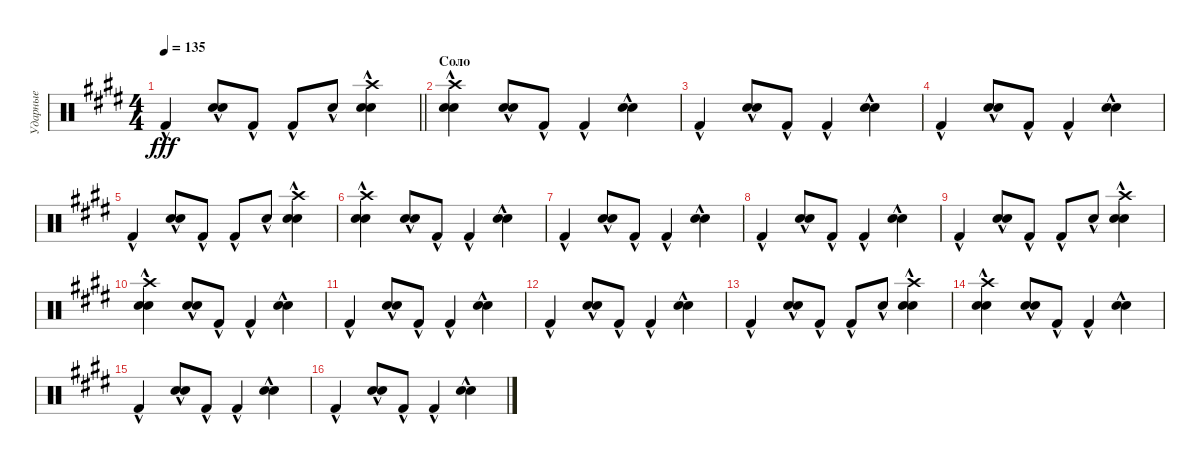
\track ("Ударные" "Ударные") {instrument percussion}
\staff {score}
\articulation defaults
\ts (4 4)
\tempo 135
\clef neutral
\barLineRight lightlight
\ks c#minor "Kick (hit) 2"{hac}.4{dy fff}
("Snare (hit) 2"{hac} "Electric Snare (hit)"{hac}).8 "Kick (hit) 2"{hac}.8 "Kick (hit) 2"{hac}.8 "Electric Snare (hit)"{hac}.8 ("Crash high (hit)"{hac} "Snare (hit) 2"{hac} "Electric Snare (hit)"{hac}).4 |
\section ("" "Соло")
("Crash high (hit)"{hac} "Snare (hit) 2"{hac} "Electric Snare (hit)"{hac}).4 ("Snare (hit) 2"{hac} "Electric Snare (hit)"{hac}).8 "Kick (hit) 2"{hac}.8 "Kick (hit) 2"{hac}.4 ("Snare (hit) 2"{hac} "Electric Snare (hit)"{hac}).4 |
"Kick (hit) 2"{hac}.4 ("Snare (hit) 2"{hac} "Electric Snare (hit)"{hac}).8 "Kick (hit) 2"{hac}.8 "Kick (hit) 2"{hac}.4 ("Snare (hit) 2"{hac} "Electric Snare (hit)"{hac}).4 |
"Kick (hit) 2"{hac}.4 ("Snare (hit) 2"{hac} "Electric Snare (hit)"{hac}).8 "Kick (hit) 2"{hac}.8 "Kick (hit) 2"{hac}.4 ("Snare (hit) 2"{hac} "Electric Snare (hit)"{hac}).4 |
"Kick (hit) 2"{hac}.4 ("Snare (hit) 2"{hac} "Electric Snare (hit)"{hac}).8 "Kick (hit) 2"{hac}.8 "Kick (hit) 2"{hac}.8 "Electric Snare (hit)"{hac}.8 ("Crash high (hit)"{hac} "Snare (hit) 2"{hac} "Electric Snare (hit)"{hac}).4 |
("Crash high (hit)"{hac} "Snare (hit) 2"{hac} "Electric Snare (hit)"{hac}).4 ("Snare (hit) 2"{hac} "Electric Snare (hit)"{hac}).8 "Kick (hit) 2"{hac}.8 "Kick (hit) 2"{hac}.4 ("Snare (hit) 2"{hac} "Electric Snare (hit)"{hac}).4 |
"Kick (hit) 2"{hac}.4 ("Snare (hit) 2"{hac} "Electric Snare (hit)"{hac}).8 "Kick (hit) 2"{hac}.8 "Kick (hit) 2"{hac}.4 ("Snare (hit) 2"{hac} "Electric Snare (hit)"{hac}).4 |
"Kick (hit) 2"{hac}.4 ("Snare (hit) 2"{hac} "Electric Snare (hit)"{hac}).8 "Kick (hit) 2"{hac}.8 "Kick (hit) 2"{hac}.4 ("Snare (hit) 2"{hac} "Electric Snare (hit)"{hac}).4 |
"Kick (hit) 2"{hac}.4 ("Snare (hit) 2"{hac} "Electric Snare (hit)"{hac}).8 "Kick (hit) 2"{hac}.8 "Kick (hit) 2"{hac}.8 "Electric Snare (hit)"{hac}.8 ("Crash high (hit)"{hac} "Snare (hit) 2"{hac} "Electric Snare (hit)"{hac}).4 |
("Crash high (hit)"{hac} "Snare (hit) 2"{hac} "Electric Snare (hit)"{hac}).4 ("Snare (hit) 2"{hac} "Electric Snare (hit)"{hac}).8 "Kick (hit) 2"{hac}.8 "Kick (hit) 2"{hac}.4 ("Snare (hit) 2"{hac} "Electric Snare (hit)"{hac}).4 |
"Kick (hit) 2"{hac}.4 ("Snare (hit) 2"{hac} "Electric Snare (hit)"{hac}).8 "Kick (hit) 2"{hac}.8 "Kick (hit) 2"{hac}.4 ("Snare (hit) 2"{hac} "Electric Snare (hit)"{hac}).4 |
"Kick (hit) 2"{hac}.4 ("Snare (hit) 2"{hac} "Electric Snare (hit)"{hac}).8 "Kick (hit) 2"{hac}.8 "Kick (hit) 2"{hac}.4 ("Snare (hit) 2"{hac} "Electric Snare (hit)"{hac}).4 |
"Kick (hit) 2"{hac}.4 ("Snare (hit) 2"{hac} "Electric Snare (hit)"{hac}).8 "Kick (hit) 2"{hac}.8 "Kick (hit) 2"{hac}.8 "Electric Snare (hit)"{hac}.8 ("Crash high (hit)"{hac} "Snare (hit) 2"{hac} "Electric Snare (hit)"{hac}).4 |
("Crash high (hit)"{hac} "Snare (hit) 2"{hac} "Electric Snare (hit)"{hac}).4 ("Snare (hit) 2"{hac} "Electric Snare (hit)"{hac}).8 "Kick (hit) 2"{hac}.8 "Kick (hit) 2"{hac}.4 ("Snare (hit) 2"{hac} "Electric Snare (hit)"{hac}).4 |
"Kick (hit) 2"{hac}.4 ("Snare (hit) 2"{hac} "Electric Snare (hit)"{hac}).8 "Kick (hit) 2"{hac}.8 "Kick (hit) 2"{hac}.4 ("Snare (hit) 2"{hac} "Electric Snare (hit)"{hac}).4 |
"Kick (hit) 2"{hac}.4 ("Snare (hit) 2"{hac} "Electric Snare (hit)"{hac}).8 "Kick (hit) 2"{hac}.8 "Kick (hit) 2"{hac}.4 ("Snare (hit) 2"{hac} "Electric Snare (hit)"{hac}).4
